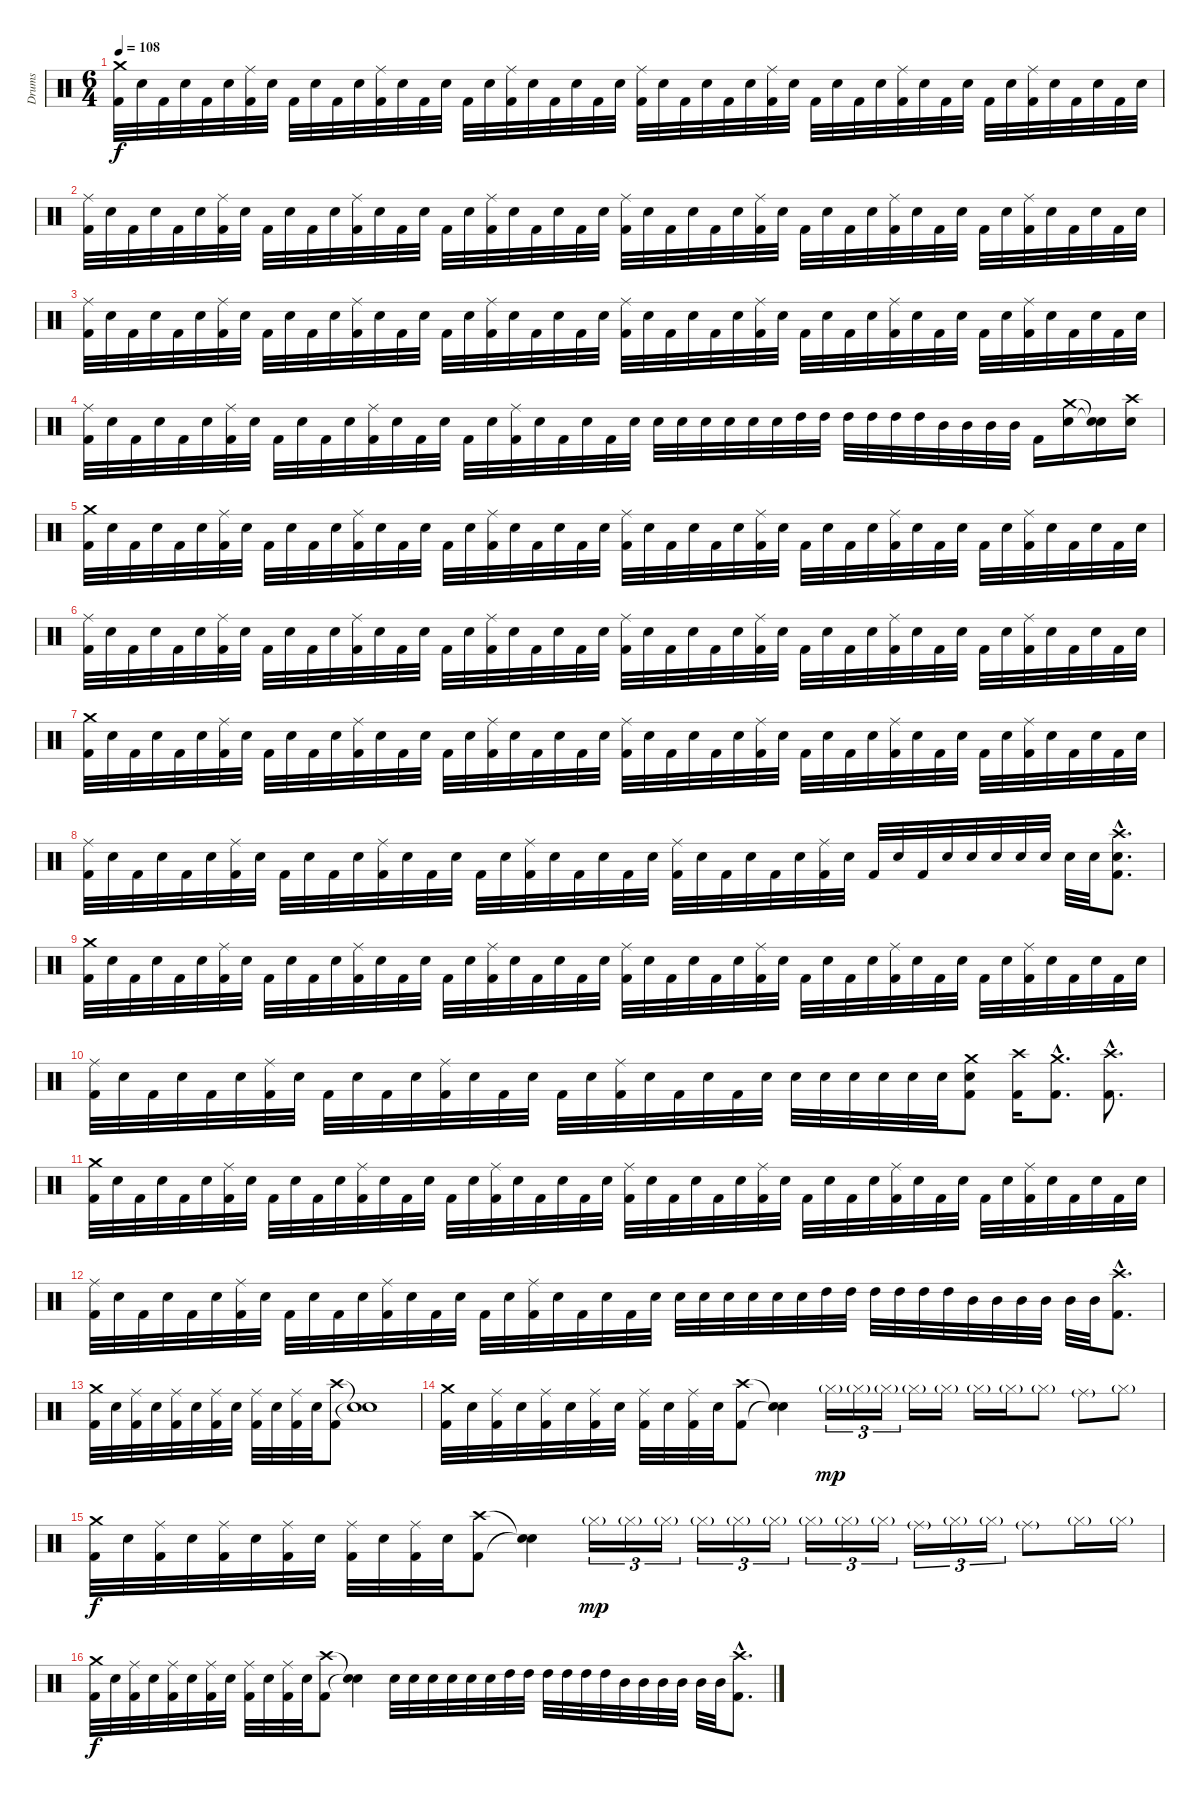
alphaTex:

\track ("Drums" "Drums") {instrument percussion}
\staff {score}
\articulation defaults
\ts (6 4)
\tempo 108
\clef neutral
\ks c
("Crash medium (hit)" "Kick (hit) 2").32{dy f} "Electric Snare (hit)".32 "Kick (hit) 2".32 "Electric Snare (hit)".32 "Kick (hit) 2".32 "Electric Snare (hit)".32 ("Ride (middle)" "Kick (hit) 2").32 "Electric Snare (hit)".32 "Kick (hit) 2".32 "Electric Snare (hit)".32 "Kick (hit) 2".32 "Electric Snare (hit)".32 ("Ride (middle)" "Kick (hit) 2").32 "Electric Snare (hit)".32 "Kick (hit) 2".32 "Electric Snare (hit)".32 "Kick (hit) 2".32 "Electric Snare (hit)".32 ("Ride (middle)" "Kick (hit) 2").32 "Electric Snare (hit)".32 "Kick (hit) 2".32 "Electric Snare (hit)".32 "Kick (hit) 2".32 "Electric Snare (hit)".32 ("Ride (middle)" "Kick (hit) 2").32 "Electric Snare (hit)".32 "Kick (hit) 2".32 "Electric Snare (hit)".32 "Kick (hit) 2".32 "Electric Snare (hit)".32 ("Ride (middle)" "Kick (hit) 2").32 "Electric Snare (hit)".32 "Kick (hit) 2".32 "Electric Snare (hit)".32 "Kick (hit) 2".32 "Electric Snare (hit)".32 ("Ride (middle)" "Kick (hit) 2").32 "Electric Snare (hit)".32 "Kick (hit) 2".32 "Electric Snare (hit)".32 "Kick (hit) 2".32 "Electric Snare (hit)".32 ("Ride (middle)" "Kick (hit) 2").32 "Electric Snare (hit)".32 "Kick (hit) 2".32 "Electric Snare (hit)".32 "Kick (hit) 2".32 "Electric Snare (hit)".32 |
("Ride (middle)" "Kick (hit) 2").32 "Electric Snare (hit)".32 "Kick (hit) 2".32 "Electric Snare (hit)".32 "Kick (hit) 2".32 "Electric Snare (hit)".32 ("Ride (middle)" "Kick (hit) 2").32 "Electric Snare (hit)".32 "Kick (hit) 2".32 "Electric Snare (hit)".32 "Kick (hit) 2".32 "Electric Snare (hit)".32 ("Ride (middle)" "Kick (hit) 2").32 "Electric Snare (hit)".32 "Kick (hit) 2".32 "Electric Snare (hit)".32 "Kick (hit) 2".32 "Electric Snare (hit)".32 ("Ride (middle)" "Kick (hit) 2").32 "Electric Snare (hit)".32 "Kick (hit) 2".32 "Electric Snare (hit)".32 "Kick (hit) 2".32 "Electric Snare (hit)".32 ("Ride (middle)" "Kick (hit) 2").32 "Electric Snare (hit)".32 "Kick (hit) 2".32 "Electric Snare (hit)".32 "Kick (hit) 2".32 "Electric Snare (hit)".32 ("Ride (middle)" "Kick (hit) 2").32 "Electric Snare (hit)".32 "Kick (hit) 2".32 "Electric Snare (hit)".32 "Kick (hit) 2".32 "Electric Snare (hit)".32 ("Ride (middle)" "Kick (hit) 2").32 "Electric Snare (hit)".32 "Kick (hit) 2".32 "Electric Snare (hit)".32 "Kick (hit) 2".32 "Electric Snare (hit)".32 ("Ride (middle)" "Kick (hit) 2").32 "Electric Snare (hit)".32 "Kick (hit) 2".32 "Electric Snare (hit)".32 "Kick (hit) 2".32 "Electric Snare (hit)".32 |
("Ride (middle)" "Kick (hit) 2").32 "Electric Snare (hit)".32 "Kick (hit) 2".32 "Electric Snare (hit)".32 "Kick (hit) 2".32 "Electric Snare (hit)".32 ("Ride (middle)" "Kick (hit) 2").32 "Electric Snare (hit)".32 "Kick (hit) 2".32 "Electric Snare (hit)".32 "Kick (hit) 2".32 "Electric Snare (hit)".32 ("Ride (middle)" "Kick (hit) 2").32 "Electric Snare (hit)".32 "Kick (hit) 2".32 "Electric Snare (hit)".32 "Kick (hit) 2".32 "Electric Snare (hit)".32 ("Ride (middle)" "Kick (hit) 2").32 "Electric Snare (hit)".32 "Kick (hit) 2".32 "Electric Snare (hit)".32 "Kick (hit) 2".32 "Electric Snare (hit)".32 ("Ride (middle)" "Kick (hit) 2").32 "Electric Snare (hit)".32 "Kick (hit) 2".32 "Electric Snare (hit)".32 "Kick (hit) 2".32 "Electric Snare (hit)".32 ("Ride (middle)" "Kick (hit) 2").32 "Electric Snare (hit)".32 "Kick (hit) 2".32 "Electric Snare (hit)".32 "Kick (hit) 2".32 "Electric Snare (hit)".32 ("Ride (middle)" "Kick (hit) 2").32 "Electric Snare (hit)".32 "Kick (hit) 2".32 "Electric Snare (hit)".32 "Kick (hit) 2".32 "Electric Snare (hit)".32 ("Ride (middle)" "Kick (hit) 2").32 "Electric Snare (hit)".32 "Kick (hit) 2".32 "Electric Snare (hit)".32 "Kick (hit) 2".32 "Electric Snare (hit)".32 |
("Ride (middle)" "Kick (hit) 2").32 "Electric Snare (hit)".32 "Kick (hit) 2".32 "Electric Snare (hit)".32 "Kick (hit) 2".32 "Electric Snare (hit)".32 ("Ride (middle)" "Kick (hit) 2").32 "Electric Snare (hit)".32 "Kick (hit) 2".32 "Electric Snare (hit)".32 "Kick (hit) 2".32 "Electric Snare (hit)".32 ("Ride (middle)" "Kick (hit) 2").32 "Electric Snare (hit)".32 "Kick (hit) 2".32 "Electric Snare (hit)".32 "Kick (hit) 2".32 "Electric Snare (hit)".32 ("Ride (middle)" "Kick (hit) 2").32 "Electric Snare (hit)".32 "Kick (hit) 2".32 "Electric Snare (hit)".32 "Kick (hit) 2".32 "Electric Snare (hit)".32 "Electric Snare (hit)".32 "Electric Snare (hit)".32 "Electric Snare (hit)".32 "Electric Snare (hit)".32 "Electric Snare (hit)".32 "Electric Snare (hit)".32 "High Tom (hit)".32 "High Tom (hit)".32 "High Tom (hit)".32 "High Tom (hit)".32 "High Tom (hit)".32 "High Tom (hit)".32 "Mid Tom (hit)".32 "Mid Tom (hit)".32 "Mid Tom (hit)".32 "Mid Tom (hit)".32 "Kick (hit) 2".16 ("Crash medium (hit)" "Electric Snare (hit)").16 ("Snare (hit)"{t} "Snare (hit)"{t}).16 ("Crash high (hit)" "Electric Snare (hit)").16 |
\section ("" "")
("Crash medium (hit)" "Kick (hit) 2").32 "Electric Snare (hit)".32 "Kick (hit) 2".32 "Electric Snare (hit)".32 "Kick (hit) 2".32 "Electric Snare (hit)".32 ("Ride (middle)" "Kick (hit) 2").32 "Electric Snare (hit)".32 "Kick (hit) 2".32 "Electric Snare (hit)".32 "Kick (hit) 2".32 "Electric Snare (hit)".32 ("Ride (middle)" "Kick (hit) 2").32 "Electric Snare (hit)".32 "Kick (hit) 2".32 "Electric Snare (hit)".32 "Kick (hit) 2".32 "Electric Snare (hit)".32 ("Ride (middle)" "Kick (hit) 2").32 "Electric Snare (hit)".32 "Kick (hit) 2".32 "Electric Snare (hit)".32 "Kick (hit) 2".32 "Electric Snare (hit)".32 ("Ride (middle)" "Kick (hit) 2").32 "Electric Snare (hit)".32 "Kick (hit) 2".32 "Electric Snare (hit)".32 "Kick (hit) 2".32 "Electric Snare (hit)".32 ("Ride (middle)" "Kick (hit) 2").32 "Electric Snare (hit)".32 "Kick (hit) 2".32 "Electric Snare (hit)".32 "Kick (hit) 2".32 "Electric Snare (hit)".32 ("Ride (middle)" "Kick (hit) 2").32 "Electric Snare (hit)".32 "Kick (hit) 2".32 "Electric Snare (hit)".32 "Kick (hit) 2".32 "Electric Snare (hit)".32 ("Ride (middle)" "Kick (hit) 2").32 "Electric Snare (hit)".32 "Kick (hit) 2".32 "Electric Snare (hit)".32 "Kick (hit) 2".32 "Electric Snare (hit)".32 |
("Ride (middle)" "Kick (hit) 2").32 "Electric Snare (hit)".32 "Kick (hit) 2".32 "Electric Snare (hit)".32 "Kick (hit) 2".32 "Electric Snare (hit)".32 ("Ride (middle)" "Kick (hit) 2").32 "Electric Snare (hit)".32 "Kick (hit) 2".32 "Electric Snare (hit)".32 "Kick (hit) 2".32 "Electric Snare (hit)".32 ("Ride (middle)" "Kick (hit) 2").32 "Electric Snare (hit)".32 "Kick (hit) 2".32 "Electric Snare (hit)".32 "Kick (hit) 2".32 "Electric Snare (hit)".32 ("Ride (middle)" "Kick (hit) 2").32 "Electric Snare (hit)".32 "Kick (hit) 2".32 "Electric Snare (hit)".32 "Kick (hit) 2".32 "Electric Snare (hit)".32 ("Ride (middle)" "Kick (hit) 2").32 "Electric Snare (hit)".32 "Kick (hit) 2".32 "Electric Snare (hit)".32 "Kick (hit) 2".32 "Electric Snare (hit)".32 ("Ride (middle)" "Kick (hit) 2").32 "Electric Snare (hit)".32 "Kick (hit) 2".32 "Electric Snare (hit)".32 "Kick (hit) 2".32 "Electric Snare (hit)".32 ("Ride (middle)" "Kick (hit) 2").32 "Electric Snare (hit)".32 "Kick (hit) 2".32 "Electric Snare (hit)".32 "Kick (hit) 2".32 "Electric Snare (hit)".32 ("Ride (middle)" "Kick (hit) 2").32 "Electric Snare (hit)".32 "Kick (hit) 2".32 "Electric Snare (hit)".32 "Kick (hit) 2".32 "Electric Snare (hit)".32 |
("Crash medium (hit)" "Kick (hit) 2").32 "Electric Snare (hit)".32 "Kick (hit) 2".32 "Electric Snare (hit)".32 "Kick (hit) 2".32 "Electric Snare (hit)".32 ("Ride (middle)" "Kick (hit) 2").32 "Electric Snare (hit)".32 "Kick (hit) 2".32 "Electric Snare (hit)".32 "Kick (hit) 2".32 "Electric Snare (hit)".32 ("Ride (middle)" "Kick (hit) 2").32 "Electric Snare (hit)".32 "Kick (hit) 2".32 "Electric Snare (hit)".32 "Kick (hit) 2".32 "Electric Snare (hit)".32 ("Ride (middle)" "Kick (hit) 2").32 "Electric Snare (hit)".32 "Kick (hit) 2".32 "Electric Snare (hit)".32 "Kick (hit) 2".32 "Electric Snare (hit)".32 ("Ride (middle)" "Kick (hit) 2").32 "Electric Snare (hit)".32 "Kick (hit) 2".32 "Electric Snare (hit)".32 "Kick (hit) 2".32 "Electric Snare (hit)".32 ("Ride (middle)" "Kick (hit) 2").32 "Electric Snare (hit)".32 "Kick (hit) 2".32 "Electric Snare (hit)".32 "Kick (hit) 2".32 "Electric Snare (hit)".32 ("Ride (middle)" "Kick (hit) 2").32 "Electric Snare (hit)".32 "Kick (hit) 2".32 "Electric Snare (hit)".32 "Kick (hit) 2".32 "Electric Snare (hit)".32 ("Ride (middle)" "Kick (hit) 2").32 "Electric Snare (hit)".32 "Kick (hit) 2".32 "Electric Snare (hit)".32 "Kick (hit) 2".32 "Electric Snare (hit)".32 |
("Ride (middle)" "Kick (hit) 2").32 "Electric Snare (hit)".32 "Kick (hit) 2".32 "Electric Snare (hit)".32 "Kick (hit) 2".32 "Electric Snare (hit)".32 ("Ride (middle)" "Kick (hit) 2").32 "Electric Snare (hit)".32 "Kick (hit) 2".32 "Electric Snare (hit)".32 "Kick (hit) 2".32 "Electric Snare (hit)".32 ("Ride (middle)" "Kick (hit) 2").32 "Electric Snare (hit)".32 "Kick (hit) 2".32 "Electric Snare (hit)".32 "Kick (hit) 2".32 "Electric Snare (hit)".32 ("Ride (middle)" "Kick (hit) 2").32 "Electric Snare (hit)".32 "Kick (hit) 2".32 "Electric Snare (hit)".32 "Kick (hit) 2".32 "Electric Snare (hit)".32 ("Ride (middle)" "Kick (hit) 2").32 "Electric Snare (hit)".32 "Kick (hit) 2".32 "Electric Snare (hit)".32 "Kick (hit) 2".32 "Electric Snare (hit)".32 ("Ride (middle)" "Kick (hit) 2").32 "Electric Snare (hit)".32 "Kick (hit) 2".32 "Electric Snare (hit)".32 "Kick (hit) 2".32 "Electric Snare (hit)".32 "Electric Snare (hit)".32 "Electric Snare (hit)".32 "Electric Snare (hit)".32 "Electric Snare (hit)".32 "Electric Snare (hit)".32 "Electric Snare (hit)".32 ("Crash high (hit)"{hac} "Electric Snare (hit)"{hac} "Kick (hit) 2"{hac}).8{d} |
("Crash medium (hit)" "Kick (hit) 2").32 "Electric Snare (hit)".32 "Kick (hit) 2".32 "Electric Snare (hit)".32 "Kick (hit) 2".32 "Electric Snare (hit)".32 ("Ride (middle)" "Kick (hit) 2").32 "Electric Snare (hit)".32 "Kick (hit) 2".32 "Electric Snare (hit)".32 "Kick (hit) 2".32 "Electric Snare (hit)".32 ("Ride (middle)" "Kick (hit) 2").32 "Electric Snare (hit)".32 "Kick (hit) 2".32 "Electric Snare (hit)".32 "Kick (hit) 2".32 "Electric Snare (hit)".32 ("Ride (middle)" "Kick (hit) 2").32 "Electric Snare (hit)".32 "Kick (hit) 2".32 "Electric Snare (hit)".32 "Kick (hit) 2".32 "Electric Snare (hit)".32 ("Ride (middle)" "Kick (hit) 2").32 "Electric Snare (hit)".32 "Kick (hit) 2".32 "Electric Snare (hit)".32 "Kick (hit) 2".32 "Electric Snare (hit)".32 ("Ride (middle)" "Kick (hit) 2").32 "Electric Snare (hit)".32 "Kick (hit) 2".32 "Electric Snare (hit)".32 "Kick (hit) 2".32 "Electric Snare (hit)".32 ("Ride (middle)" "Kick (hit) 2").32 "Electric Snare (hit)".32 "Kick (hit) 2".32 "Electric Snare (hit)".32 "Kick (hit) 2".32 "Electric Snare (hit)".32 ("Ride (middle)" "Kick (hit) 2").32 "Electric Snare (hit)".32 "Kick (hit) 2".32 "Electric Snare (hit)".32 "Kick (hit) 2".32 "Electric Snare (hit)".32 |
("Ride (middle)" "Kick (hit) 2").32 "Electric Snare (hit)".32 "Kick (hit) 2".32 "Electric Snare (hit)".32 "Kick (hit) 2".32 "Electric Snare (hit)".32 ("Ride (middle)" "Kick (hit) 2").32 "Electric Snare (hit)".32 "Kick (hit) 2".32 "Electric Snare (hit)".32 "Kick (hit) 2".32 "Electric Snare (hit)".32 ("Ride (middle)" "Kick (hit) 2").32 "Electric Snare (hit)".32 "Kick (hit) 2".32 "Electric Snare (hit)".32 "Kick (hit) 2".32 "Electric Snare (hit)".32 ("Ride (middle)" "Kick (hit) 2").32 "Electric Snare (hit)".32 "Kick (hit) 2".32 "Electric Snare (hit)".32 "Kick (hit) 2".32 "Electric Snare (hit)".32 "Electric Snare (hit)".32 "Electric Snare (hit)".32 "Electric Snare (hit)".32 "Electric Snare (hit)".32 "Electric Snare (hit)".32 "Electric Snare (hit)".32 ("Crash medium (hit)" "Electric Snare (hit)" "Kick (hit) 2").8 ("Crash high (hit)" "Kick (hit) 2").16 ("Crash medium (hit)"{hac} "Kick (hit) 2"{hac}).8{d} ("Crash high (hit)"{hac} "Kick (hit) 2"{hac}).8{d} |
("Crash medium (hit)" "Kick (hit) 2").32 "Electric Snare (hit)".32 "Kick (hit) 2".32 "Electric Snare (hit)".32 "Kick (hit) 2".32 "Electric Snare (hit)".32 ("Ride (middle)" "Kick (hit) 2").32 "Electric Snare (hit)".32 "Kick (hit) 2".32 "Electric Snare (hit)".32 "Kick (hit) 2".32 "Electric Snare (hit)".32 ("Ride (middle)" "Kick (hit) 2").32 "Electric Snare (hit)".32 "Kick (hit) 2".32 "Electric Snare (hit)".32 "Kick (hit) 2".32 "Electric Snare (hit)".32 ("Ride (middle)" "Kick (hit) 2").32 "Electric Snare (hit)".32 "Kick (hit) 2".32 "Electric Snare (hit)".32 "Kick (hit) 2".32 "Electric Snare (hit)".32 ("Ride (middle)" "Kick (hit) 2").32 "Electric Snare (hit)".32 "Kick (hit) 2".32 "Electric Snare (hit)".32 "Kick (hit) 2".32 "Electric Snare (hit)".32 ("Ride (middle)" "Kick (hit) 2").32 "Electric Snare (hit)".32 "Kick (hit) 2".32 "Electric Snare (hit)".32 "Kick (hit) 2".32 "Electric Snare (hit)".32 ("Ride (middle)" "Kick (hit) 2").32 "Electric Snare (hit)".32 "Kick (hit) 2".32 "Electric Snare (hit)".32 "Kick (hit) 2".32 "Electric Snare (hit)".32 ("Ride (middle)" "Kick (hit) 2").32 "Electric Snare (hit)".32 "Kick (hit) 2".32 "Electric Snare (hit)".32 "Kick (hit) 2".32 "Electric Snare (hit)".32 |
("Ride (middle)" "Kick (hit) 2").32 "Electric Snare (hit)".32 "Kick (hit) 2".32 "Electric Snare (hit)".32 "Kick (hit) 2".32 "Electric Snare (hit)".32 ("Ride (middle)" "Kick (hit) 2").32 "Electric Snare (hit)".32 "Kick (hit) 2".32 "Electric Snare (hit)".32 "Kick (hit) 2".32 "Electric Snare (hit)".32 ("Ride (middle)" "Kick (hit) 2").32 "Electric Snare (hit)".32 "Kick (hit) 2".32 "Electric Snare (hit)".32 "Kick (hit) 2".32 "Electric Snare (hit)".32 ("Ride (middle)" "Kick (hit) 2").32 "Electric Snare (hit)".32 "Kick (hit) 2".32 "Electric Snare (hit)".32 "Kick (hit) 2".32 "Electric Snare (hit)".32 "Electric Snare (hit)".32 "Electric Snare (hit)".32 "Electric Snare (hit)".32 "Electric Snare (hit)".32 "Electric Snare (hit)".32 "Electric Snare (hit)".32 "High Tom (hit)".32 "High Tom (hit)".32 "High Tom (hit)".32 "High Tom (hit)".32 "High Tom (hit)".32 "High Tom (hit)".32 "Mid Tom (hit)".32 "Mid Tom (hit)".32 "Mid Tom (hit)".32 "Mid Tom (hit)".32 "Mid Tom (hit)".32 "Mid Tom (hit)".32 ("Crash high (hit)"{hac} "Kick (hit) 2"{hac}).8{d} |
\section ("" "")
("Crash medium (hit)" "Kick (hit) 2").32 "Electric Snare (hit)".32 ("Ride (middle)" "Kick (hit) 2").32 "Electric Snare (hit)".32 ("Ride (middle)" "Kick (hit) 2").32 "Electric Snare (hit)".32 ("Ride (middle)" "Kick (hit) 2").32 "Electric Snare (hit)".32 ("Ride (middle)" "Kick (hit) 2").32 "Electric Snare (hit)".32 ("Ride (middle)" "Kick (hit) 2").32 "Electric Snare (hit)".32 ("Crash high (hit)" "Kick (hit) 2").8 ("Snare (hit)"{t} "Snare (hit)"{t}).1{volume 0} |
("Crash medium (hit)" "Kick (hit) 2").32{volume 16} "Electric Snare (hit)".32 ("Ride (middle)" "Kick (hit) 2").32 "Electric Snare (hit)".32 ("Ride (middle)" "Kick (hit) 2").32 "Electric Snare (hit)".32 ("Ride (middle)" "Kick (hit) 2").32 "Electric Snare (hit)".32 ("Ride (middle)" "Kick (hit) 2").32 "Electric Snare (hit)".32 ("Ride (middle)" "Kick (hit) 2").32 "Electric Snare (hit)".32 ("Crash high (hit)" "Kick (hit) 2").8 ("Snare (hit)"{t} "Snare (hit)"{t}).4{volume 0} "Hi-Hat (closed)"{g}.16{tu (3 2) dy mp volume 16} "Hi-Hat (closed)"{g}.16{tu (3 2)} "Hi-Hat (closed)"{g}.16{tu (3 2)} "Hi-Hat (closed)"{g}.16 "Hi-Hat (closed)"{g}.16 "Hi-Hat (closed)"{g}.16 "Hi-Hat (closed)"{g}.16 "Hi-Hat (closed)"{g}.8 "Ride (middle)"{g}.8 "Hi-Hat (closed)"{g}.8 |
("Crash medium (hit)" "Kick (hit) 2").32{dy f volume 16} "Electric Snare (hit)".32 ("Ride (middle)" "Kick (hit) 2").32 "Electric Snare (hit)".32 ("Ride (middle)" "Kick (hit) 2").32 "Electric Snare (hit)".32 ("Ride (middle)" "Kick (hit) 2").32 "Electric Snare (hit)".32 ("Ride (middle)" "Kick (hit) 2").32 "Electric Snare (hit)".32 ("Ride (middle)" "Kick (hit) 2").32 "Electric Snare (hit)".32 ("Crash high (hit)" "Kick (hit) 2").8 ("Snare (hit)"{t} "Snare (hit)"{t}).4{volume 0} "Hi-Hat (closed)"{g}.16{tu (3 2) dy mp volume 16} "Hi-Hat (closed)"{g}.16{tu (3 2)} "Hi-Hat (closed)"{g}.16{tu (3 2)} "Hi-Hat (closed)"{g}.16{tu (3 2)} "Hi-Hat (closed)"{g}.16{tu (3 2)} "Hi-Hat (closed)"{g}.16{tu (3 2)} "Hi-Hat (closed)"{g}.16{tu (3 2)} "Hi-Hat (closed)"{g}.16{tu (3 2)} "Hi-Hat (closed)"{g}.16{tu (3 2)} "Ride (middle)"{g}.16{tu (3 2)} "Hi-Hat (closed)"{g}.16{tu (3 2)} "Hi-Hat (closed)"{g}.16{tu (3 2)} "Ride (middle)"{g}.8 "Hi-Hat (closed)"{g}.16 "Hi-Hat (closed)"{g}.16 |
("Crash medium (hit)" "Kick (hit) 2").32{dy f volume 16} "Electric Snare (hit)".32 ("Ride (middle)" "Kick (hit) 2").32 "Electric Snare (hit)".32 ("Ride (middle)" "Kick (hit) 2").32 "Electric Snare (hit)".32 ("Ride (middle)" "Kick (hit) 2").32 "Electric Snare (hit)".32 ("Ride (middle)" "Kick (hit) 2").32 "Electric Snare (hit)".32 ("Ride (middle)" "Kick (hit) 2").32 "Electric Snare (hit)".32 ("Crash high (hit)" "Kick (hit) 2").8 ("Snare (hit)"{t} "Snare (hit)"{t}).4{volume 0} "Electric Snare (hit)".32{volume 16} "Electric Snare (hit)".32 "Electric Snare (hit)".32 "Electric Snare (hit)".32 "Electric Snare (hit)".32 "Electric Snare (hit)".32 "High Tom (hit)".32 "High Tom (hit)".32 "High Tom (hit)".32 "High Tom (hit)".32 "High Tom (hit)".32 "High Tom (hit)".32 "Mid Tom (hit)".32 "Mid Tom (hit)".32 "Mid Tom (hit)".32 "Mid Tom (hit)".32 "Mid Tom (hit)".32 "Mid Tom (hit)".32 ("Crash high (hit)"{hac} "Kick (hit) 2"{hac}).8{d}
